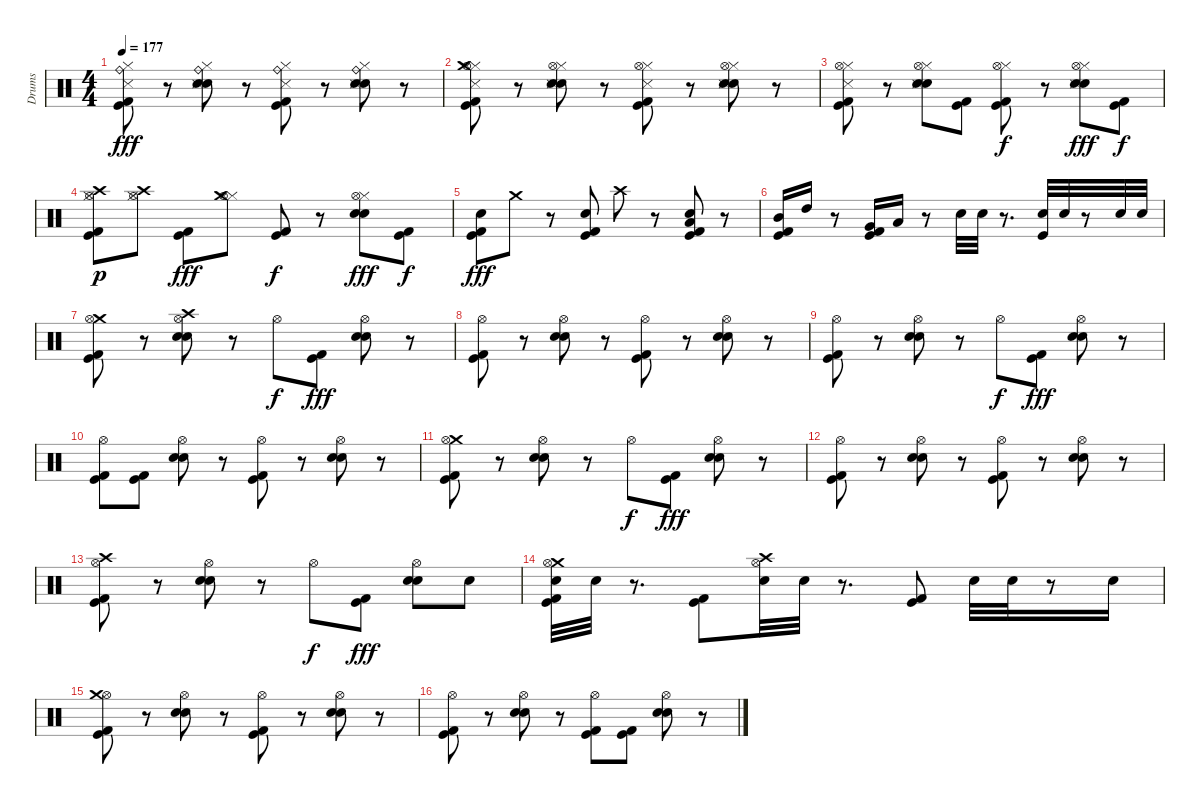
\track ("Drums" "Drums") {instrument percussion}
\staff {score}
\articulation defaults
\ts (4 4)
\tempo 177
\clef neutral
\ks c
("Hi-Hat (closed)" "Kick (hit) 2" "Kick (hit)" "Snare (side stick) 3" "Ride (bell)").8{dy fff} r.8 ("Hi-Hat (closed)" "Electric Snare (hit)" "Snare (hit) 2" "Snare (side stick) 3" "Ride (bell)").8 r.8 ("Hi-Hat (closed)" "Kick (hit) 2" "Kick (hit)" "Snare (side stick) 3" "Ride (bell)").8 r.8 ("Hi-Hat (closed)" "Electric Snare (hit)" "Snare (hit) 2" "Snare (side stick) 3" "Ride (bell)").8 r.8 |
("Hi-Hat (closed)" "Kick (hit) 2" "Kick (hit)" "Snare (side stick) 3" "Crash medium (hit)" "Hi-Hat (open)").8 r.8 ("Hi-Hat (closed)" "Electric Snare (hit)" "Snare (hit) 2" "Snare (side stick) 3" "Hi-Hat (open)").8 r.8 ("Hi-Hat (closed)" "Kick (hit) 2" "Kick (hit)" "Snare (side stick) 3" "Hi-Hat (open)").8 r.8 ("Hi-Hat (closed)" "Electric Snare (hit)" "Snare (hit) 2" "Snare (side stick) 3" "Hi-Hat (open)").8 r.8 |
("Kick (hit) 2" "Kick (hit)" "Hi-Hat (closed)" "Snare (side stick) 3" "Hi-Hat (open)").8 r.8 ("Hi-Hat (closed)" "Hi-Hat (open)" "Electric Snare (hit)" "Snare (hit) 2" "Snare (side stick) 3").8 ("Kick (hit) 2" "Kick (hit)").8 ("Hi-Hat (closed)" "Kick (hit) 2" "Kick (hit)" "Hi-Hat (open)").8{dy f} r.8 ("Electric Snare (hit)" "Snare (hit) 2" "Hi-Hat (closed)" "Snare (side stick) 3" "Hi-Hat (open)").8{dy fff} ("Kick (hit) 2" "Kick (hit)").8{dy f} |
("Kick (hit) 2" "Kick (hit)" "Hi-Hat (closed)" "Hi-Hat (open)" "Crash high (hit)").8{dy p} ("Hi-Hat (closed)" "Hi-Hat (open)" "Crash high (hit)").8 ("Kick (hit) 2" "Kick (hit)").8{dy fff} ("Hi-Hat (closed)" "Hi-Hat (open)" "Crash medium (hit)").8 ("Kick (hit) 2" "Kick (hit)").8{dy f} r.8 ("Snare (hit) 2" "Electric Snare (hit)" "Hi-Hat (closed)" "Hi-Hat (open)").8{dy fff} ("Kick (hit) 2" "Kick (hit)").8{dy f} |
("Electric Snare (hit)" "Kick (hit) 2" "Kick (hit)").8{dy fff} "Crash medium (hit)".8 r.8 ("Electric Snare (hit)" "Kick (hit) 2" "Kick (hit)").8 "Crash high (hit)".8 r.8 ("Electric Snare (hit)" "Kick (hit) 2" "Kick (hit)" "Low Tom (hit)").8 r.8 |
("Kick (hit) 2" "Kick (hit)" "Mid Tom (hit)").16 "High Tom (hit)".16 r.8 ("Kick (hit) 2" "Kick (hit)" "Very Low Tom (hit)").16 "Low Tom (hit)".16 r.8 "Electric Snare (hit)".32 "Electric Snare (hit)".32 r.8{d} ("Kick (hit)" "Electric Snare (hit)").32 "Electric Snare (hit)".32 r.8 "Electric Snare (hit)".32 "Electric Snare (hit)".32 |
("Crash medium (hit)" "Hi-Hat (open)" "Kick (hit) 2" "Kick (hit)").8 r.8 ("Crash high (hit)" "Hi-Hat (open)" "Snare (hit) 2" "Electric Snare (hit)").8 r.8 "Hi-Hat (open)".8{dy f} ("Kick (hit) 2" "Kick (hit)").8{dy fff} ("Hi-Hat (open)" "Electric Snare (hit)" "Snare (hit) 2").8 r.8 |
("Hi-Hat (open)" "Kick (hit) 2" "Kick (hit)").8 r.8 ("Hi-Hat (open)" "Snare (hit) 2" "Electric Snare (hit)").8 r.8 ("Hi-Hat (open)" "Kick (hit) 2" "Kick (hit)").8 r.8 ("Hi-Hat (open)" "Electric Snare (hit)" "Snare (hit) 2").8 r.8 |
("Hi-Hat (open)" "Kick (hit) 2" "Kick (hit)").8 r.8 ("Hi-Hat (open)" "Snare (hit) 2" "Electric Snare (hit)").8 r.8 "Hi-Hat (open)".8{dy f} ("Kick (hit) 2" "Kick (hit)").8{dy fff} ("Hi-Hat (open)" "Electric Snare (hit)" "Snare (hit) 2").8 r.8 |
("Hi-Hat (open)" "Kick (hit) 2" "Kick (hit)").8 ("Kick (hit) 2" "Kick (hit)").8 ("Hi-Hat (open)" "Snare (hit) 2" "Electric Snare (hit)").8 r.8 ("Hi-Hat (open)" "Kick (hit) 2" "Kick (hit)").8 r.8 ("Hi-Hat (open)" "Electric Snare (hit)" "Snare (hit) 2").8 r.8 |
("Crash medium (hit)" "Hi-Hat (open)" "Kick (hit) 2" "Kick (hit)").8 r.8 ("Hi-Hat (open)" "Snare (hit) 2" "Electric Snare (hit)").8 r.8 "Hi-Hat (open)".8{dy f} ("Kick (hit) 2" "Kick (hit)").8{dy fff} ("Hi-Hat (open)" "Electric Snare (hit)" "Snare (hit) 2").8 r.8 |
("Hi-Hat (open)" "Kick (hit) 2" "Kick (hit)").8 r.8 ("Hi-Hat (open)" "Snare (hit) 2" "Electric Snare (hit)").8 r.8 ("Hi-Hat (open)" "Kick (hit) 2" "Kick (hit)").8 r.8 ("Hi-Hat (open)" "Electric Snare (hit)" "Snare (hit) 2").8 r.8 |
("Hi-Hat (open)" "Kick (hit) 2" "Kick (hit)" "Crash high (hit)").8 r.8 ("Hi-Hat (open)" "Snare (hit) 2" "Electric Snare (hit)").8 r.8 "Hi-Hat (open)".8{dy f} ("Kick (hit) 2" "Kick (hit)").8{dy fff} ("Hi-Hat (open)" "Electric Snare (hit)" "Snare (hit) 2").8 "Electric Snare (hit)".8 |
("Electric Snare (hit)" "Kick (hit) 2" "Kick (hit)" "Crash medium (hit)" "Hi-Hat (open)").32 "Electric Snare (hit)".32 r.8{d} ("Kick (hit) 2" "Kick (hit)").8 ("Electric Snare (hit)" "Crash high (hit)" "Hi-Hat (open)").32 "Electric Snare (hit)".32 r.8{d} ("Kick (hit) 2" "Kick (hit)").8 "Electric Snare (hit)".32 "Electric Snare (hit)".32 r.8 "Electric Snare (hit)".16 |
("Hi-Hat (open)" "Crash medium (hit)" "Kick (hit) 2" "Kick (hit)").8 r.8 ("Hi-Hat (open)" "Electric Snare (hit)" "Snare (hit) 2").8 r.8 ("Hi-Hat (open)" "Kick (hit) 2" "Kick (hit)").8 r.8 ("Hi-Hat (open)" "Electric Snare (hit)" "Snare (hit) 2").8 r.8 |
("Hi-Hat (open)" "Kick (hit) 2" "Kick (hit)").8 r.8 ("Hi-Hat (open)" "Electric Snare (hit)" "Snare (hit) 2").8 r.8 ("Hi-Hat (open)" "Kick (hit) 2" "Kick (hit)").8 ("Kick (hit)" "Kick (hit) 2").8 ("Hi-Hat (open)" "Electric Snare (hit)" "Snare (hit) 2").8 r.8
